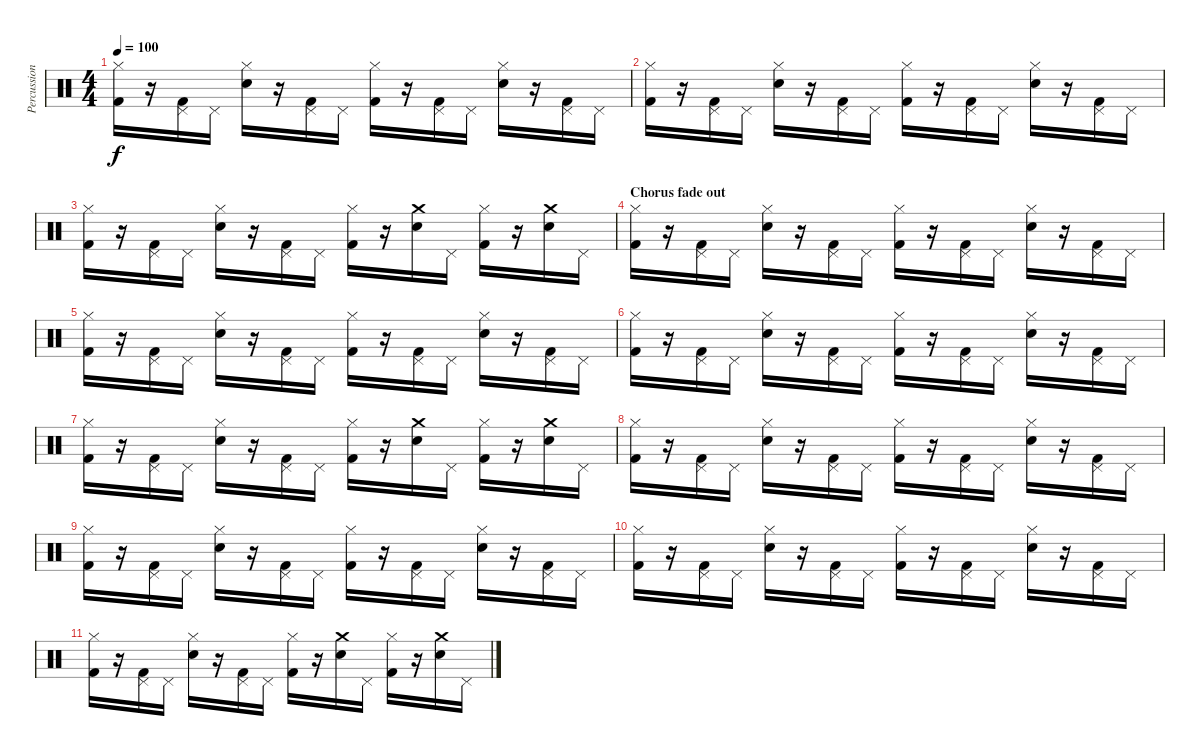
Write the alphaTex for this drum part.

\track ("Percussion" "Percussion") {instrument percussion}
\staff {score}
\articulation defaults
\ts (4 4)
\tempo 100
\clef neutral
\ks c
("Hi-Hat (closed)" "Kick (hit) 2").16{dy f} r.16 ("Pedal Hi-Hat (hit)" "Kick (hit) 2").16 "Pedal Hi-Hat (hit)".16 ("Hi-Hat (closed)" "Snare (hit) 2").16 r.16 ("Pedal Hi-Hat (hit)" "Kick (hit) 2").16 "Pedal Hi-Hat (hit)".16 ("Hi-Hat (closed)" "Kick (hit) 2").16 r.16 ("Pedal Hi-Hat (hit)" "Kick (hit) 2").16 "Pedal Hi-Hat (hit)".16 ("Hi-Hat (closed)" "Snare (hit) 2").16 r.16 ("Pedal Hi-Hat (hit)" "Kick (hit) 2").16 "Pedal Hi-Hat (hit)".16 |
("Hi-Hat (closed)" "Kick (hit) 2").16 r.16 ("Pedal Hi-Hat (hit)" "Kick (hit) 2").16 "Pedal Hi-Hat (hit)".16 ("Hi-Hat (closed)" "Snare (hit) 2").16 r.16 ("Pedal Hi-Hat (hit)" "Kick (hit) 2").16 "Pedal Hi-Hat (hit)".16 ("Hi-Hat (closed)" "Kick (hit) 2").16 r.16 ("Pedal Hi-Hat (hit)" "Kick (hit) 2").16 "Pedal Hi-Hat (hit)".16 ("Hi-Hat (closed)" "Snare (hit) 2").16 r.16 ("Pedal Hi-Hat (hit)" "Kick (hit) 2").16 "Pedal Hi-Hat (hit)".16 |
("Hi-Hat (closed)" "Kick (hit) 2").16 r.16 ("Pedal Hi-Hat (hit)" "Kick (hit) 2").16 "Pedal Hi-Hat (hit)".16 ("Hi-Hat (closed)" "Snare (hit) 2").16 r.16 ("Pedal Hi-Hat (hit)" "Kick (hit) 2").16 "Pedal Hi-Hat (hit)".16 ("Hi-Hat (closed)" "Kick (hit) 2").16 r.16 ("Crash medium (hit)" "Snare (hit) 2").16 "Pedal Hi-Hat (hit)".16 ("Hi-Hat (closed)" "Kick (hit) 2").16 r.16 ("Crash medium (hit)" "Snare (hit) 2").16 "Pedal Hi-Hat (hit)".16 |
\section ("" "Chorus fade out")
("Hi-Hat (closed)" "Kick (hit) 2").16 r.16 ("Pedal Hi-Hat (hit)" "Kick (hit) 2").16 "Pedal Hi-Hat (hit)".16 ("Hi-Hat (closed)" "Snare (hit) 2").16 r.16 ("Pedal Hi-Hat (hit)" "Kick (hit) 2").16 "Pedal Hi-Hat (hit)".16 ("Hi-Hat (closed)" "Kick (hit) 2").16 r.16 ("Pedal Hi-Hat (hit)" "Kick (hit) 2").16 "Pedal Hi-Hat (hit)".16 ("Hi-Hat (closed)" "Snare (hit) 2").16 r.16 ("Pedal Hi-Hat (hit)" "Kick (hit) 2").16 "Pedal Hi-Hat (hit)".16 |
("Hi-Hat (closed)" "Kick (hit) 2").16 r.16 ("Pedal Hi-Hat (hit)" "Kick (hit) 2").16 "Pedal Hi-Hat (hit)".16 ("Hi-Hat (closed)" "Snare (hit) 2").16 r.16 ("Pedal Hi-Hat (hit)" "Kick (hit) 2").16 "Pedal Hi-Hat (hit)".16 ("Hi-Hat (closed)" "Kick (hit) 2").16 r.16 ("Pedal Hi-Hat (hit)" "Kick (hit) 2").16 "Pedal Hi-Hat (hit)".16 ("Hi-Hat (closed)" "Snare (hit) 2").16 r.16 ("Pedal Hi-Hat (hit)" "Kick (hit) 2").16 "Pedal Hi-Hat (hit)".16 |
("Hi-Hat (closed)" "Kick (hit) 2").16 r.16 ("Pedal Hi-Hat (hit)" "Kick (hit) 2").16 "Pedal Hi-Hat (hit)".16 ("Hi-Hat (closed)" "Snare (hit) 2").16 r.16 ("Pedal Hi-Hat (hit)" "Kick (hit) 2").16 "Pedal Hi-Hat (hit)".16 ("Hi-Hat (closed)" "Kick (hit) 2").16 r.16 ("Pedal Hi-Hat (hit)" "Kick (hit) 2").16 "Pedal Hi-Hat (hit)".16 ("Hi-Hat (closed)" "Snare (hit) 2").16 r.16 ("Pedal Hi-Hat (hit)" "Kick (hit) 2").16 "Pedal Hi-Hat (hit)".16 |
("Hi-Hat (closed)" "Kick (hit) 2").16 r.16 ("Pedal Hi-Hat (hit)" "Kick (hit) 2").16 "Pedal Hi-Hat (hit)".16 ("Hi-Hat (closed)" "Snare (hit) 2").16 r.16 ("Pedal Hi-Hat (hit)" "Kick (hit) 2").16 "Pedal Hi-Hat (hit)".16 ("Hi-Hat (closed)" "Kick (hit) 2").16 r.16 ("Crash medium (hit)" "Snare (hit) 2").16 "Pedal Hi-Hat (hit)".16 ("Hi-Hat (closed)" "Kick (hit) 2").16 r.16 ("Crash medium (hit)" "Snare (hit) 2").16 "Pedal Hi-Hat (hit)".16 |
("Hi-Hat (closed)" "Kick (hit) 2").16 r.16 ("Pedal Hi-Hat (hit)" "Kick (hit) 2").16 "Pedal Hi-Hat (hit)".16 ("Hi-Hat (closed)" "Snare (hit) 2").16 r.16 ("Pedal Hi-Hat (hit)" "Kick (hit) 2").16 "Pedal Hi-Hat (hit)".16 ("Hi-Hat (closed)" "Kick (hit) 2").16 r.16 ("Pedal Hi-Hat (hit)" "Kick (hit) 2").16 "Pedal Hi-Hat (hit)".16 ("Hi-Hat (closed)" "Snare (hit) 2").16 r.16 ("Pedal Hi-Hat (hit)" "Kick (hit) 2").16 "Pedal Hi-Hat (hit)".16 |
("Hi-Hat (closed)" "Kick (hit) 2").16 r.16 ("Pedal Hi-Hat (hit)" "Kick (hit) 2").16 "Pedal Hi-Hat (hit)".16 ("Hi-Hat (closed)" "Snare (hit) 2").16 r.16 ("Pedal Hi-Hat (hit)" "Kick (hit) 2").16 "Pedal Hi-Hat (hit)".16 ("Hi-Hat (closed)" "Kick (hit) 2").16 r.16 ("Pedal Hi-Hat (hit)" "Kick (hit) 2").16 "Pedal Hi-Hat (hit)".16 ("Hi-Hat (closed)" "Snare (hit) 2").16 r.16 ("Pedal Hi-Hat (hit)" "Kick (hit) 2").16 "Pedal Hi-Hat (hit)".16 |
("Hi-Hat (closed)" "Kick (hit) 2").16 r.16 ("Pedal Hi-Hat (hit)" "Kick (hit) 2").16 "Pedal Hi-Hat (hit)".16 ("Hi-Hat (closed)" "Snare (hit) 2").16 r.16 ("Pedal Hi-Hat (hit)" "Kick (hit) 2").16 "Pedal Hi-Hat (hit)".16 ("Hi-Hat (closed)" "Kick (hit) 2").16 r.16 ("Pedal Hi-Hat (hit)" "Kick (hit) 2").16 "Pedal Hi-Hat (hit)".16 ("Hi-Hat (closed)" "Snare (hit) 2").16 r.16 ("Pedal Hi-Hat (hit)" "Kick (hit) 2").16 "Pedal Hi-Hat (hit)".16 |
("Hi-Hat (closed)" "Kick (hit) 2").16 r.16 ("Pedal Hi-Hat (hit)" "Kick (hit) 2").16 "Pedal Hi-Hat (hit)".16 ("Hi-Hat (closed)" "Snare (hit) 2").16 r.16 ("Pedal Hi-Hat (hit)" "Kick (hit) 2").16 "Pedal Hi-Hat (hit)".16 ("Hi-Hat (closed)" "Kick (hit) 2").16 r.16 ("Crash medium (hit)" "Snare (hit) 2").16 "Pedal Hi-Hat (hit)".16 ("Hi-Hat (closed)" "Kick (hit) 2").16 r.16 ("Crash medium (hit)" "Snare (hit) 2").16 "Pedal Hi-Hat (hit)".16
